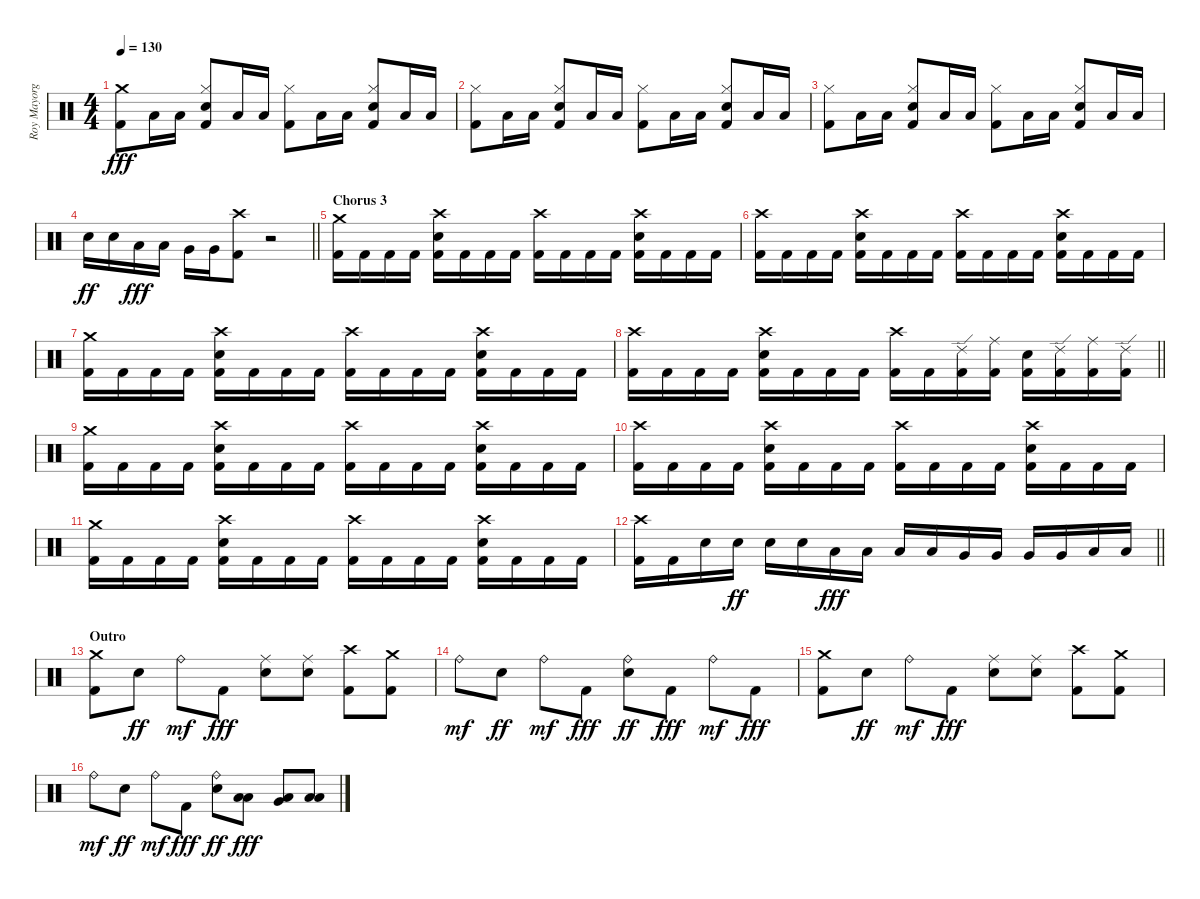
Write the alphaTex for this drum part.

\track ("Roy Mayorga" "Roy Mayorg") {instrument percussion}
\staff {score}
\articulation defaults
\ts (4 4)
\tempo 130
\clef neutral
\ks c
("Crash medium (hit)" "Kick (hit) 2").8{dy fff} "Low Floor Tom (hit)".16 "Low Floor Tom (hit)".16 ("Hi-Hat (closed)" "Electric Snare (hit)" "Kick (hit) 2").8 "Low Floor Tom (hit)".16 "Low Floor Tom (hit)".16 ("Hi-Hat (closed)" "Kick (hit) 2").8 "Low Floor Tom (hit)".16 "Low Floor Tom (hit)".16 ("Hi-Hat (closed)" "Electric Snare (hit)" "Kick (hit) 2").8 "Low Floor Tom (hit)".16 "Low Floor Tom (hit)".16 |
("Hi-Hat (closed)" "Kick (hit) 2").8 "Low Floor Tom (hit)".16 "Low Floor Tom (hit)".16 ("Hi-Hat (closed)" "Electric Snare (hit)" "Kick (hit) 2").8 "Low Floor Tom (hit)".16 "Low Floor Tom (hit)".16 ("Hi-Hat (closed)" "Kick (hit) 2").8 "Low Floor Tom (hit)".16 "Low Floor Tom (hit)".16 ("Hi-Hat (closed)" "Electric Snare (hit)" "Kick (hit) 2").8 "Low Floor Tom (hit)".16 "Low Floor Tom (hit)".16 |
("Hi-Hat (closed)" "Kick (hit) 2").8 "Low Floor Tom (hit)".16 "Low Floor Tom (hit)".16 ("Hi-Hat (closed)" "Electric Snare (hit)" "Kick (hit) 2").8 "Low Floor Tom (hit)".16 "Low Floor Tom (hit)".16 ("Hi-Hat (closed)" "Kick (hit) 2").8 "Low Floor Tom (hit)".16 "Low Floor Tom (hit)".16 ("Hi-Hat (closed)" "Electric Snare (hit)" "Kick (hit) 2").8 "Low Floor Tom (hit)".16 "Low Floor Tom (hit)".16 |
\barLineRight lightlight "Electric Snare (hit)".16{dy ff} "Electric Snare (hit)".16 "Low Tom (hit)".16{dy fff} "Low Tom (hit)".16 "Very Low Tom (hit)".16 "Very Low Tom (hit)".16
("Crash high (hit)" "Kick (hit) 2").8 r.2 |
\section ("" "Chorus 3")
("Crash medium (hit)" "Kick (hit) 2").16 "Kick (hit) 2".16 "Kick (hit) 2".16 "Kick (hit) 2".16 ("Crash high (hit)" "Electric Snare (hit)" "Kick (hit) 2").16 "Kick (hit) 2".16 "Kick (hit) 2".16 "Kick (hit) 2".16 ("Crash high (hit)" "Kick (hit) 2").16 "Kick (hit) 2".16 "Kick (hit) 2".16 "Kick (hit) 2".16 ("Crash high (hit)" "Electric Snare (hit)" "Kick (hit) 2").16 "Kick (hit) 2".16 "Kick (hit) 2".16 "Kick (hit) 2".16 |
("Crash high (hit)" "Kick (hit) 2").16 "Kick (hit) 2".16 "Kick (hit) 2".16 "Kick (hit) 2".16 ("Crash high (hit)" "Electric Snare (hit)" "Kick (hit) 2").16 "Kick (hit) 2".16 "Kick (hit) 2".16 "Kick (hit) 2".16 ("Crash high (hit)" "Kick (hit) 2").16 "Kick (hit) 2".16 "Kick (hit) 2".16 "Kick (hit) 2".16 ("Crash high (hit)" "Electric Snare (hit)" "Kick (hit) 2").16 "Kick (hit) 2".16 "Kick (hit) 2".16 "Kick (hit) 2".16 |
("Crash medium (hit)" "Kick (hit) 2").16 "Kick (hit) 2".16 "Kick (hit) 2".16 "Kick (hit) 2".16 ("Crash high (hit)" "Electric Snare (hit)" "Kick (hit) 2").16 "Kick (hit) 2".16 "Kick (hit) 2".16 "Kick (hit) 2".16 ("Crash high (hit)" "Kick (hit) 2").16 "Kick (hit) 2".16 "Kick (hit) 2".16 "Kick (hit) 2".16 ("Crash high (hit)" "Electric Snare (hit)" "Kick (hit) 2").16 "Kick (hit) 2".16 "Kick (hit) 2".16 "Kick (hit) 2".16 |
\barLineRight lightlight
("Crash high (hit)" "Kick (hit) 2").16 "Kick (hit) 2".16 "Kick (hit) 2".16 "Kick (hit) 2".16 ("Crash high (hit)" "Electric Snare (hit)" "Kick (hit) 2").16 "Kick (hit) 2".16 "Kick (hit) 2".16 "Kick (hit) 2".16 ("Crash high (hit)" "Kick (hit) 2").16 "Kick (hit) 2".16 ("Ride (edge) 2" "Kick (hit) 2").16 ("Ride (middle)" "Kick (hit) 2").16 ("Electric Snare (hit)" "Kick (hit) 2").16 ("Ride (edge) 2" "Kick (hit) 2").16 ("Ride (middle)" "Kick (hit) 2").16 ("Ride (edge) 2" "Kick (hit) 2").16 |
("Crash medium (hit)" "Kick (hit) 2").16 "Kick (hit) 2".16 "Kick (hit) 2".16 "Kick (hit) 2".16 ("Crash high (hit)" "Electric Snare (hit)" "Kick (hit) 2").16 "Kick (hit) 2".16 "Kick (hit) 2".16 "Kick (hit) 2".16 ("Crash high (hit)" "Kick (hit) 2").16 "Kick (hit) 2".16 "Kick (hit) 2".16 "Kick (hit) 2".16 ("Crash high (hit)" "Electric Snare (hit)" "Kick (hit) 2").16 "Kick (hit) 2".16 "Kick (hit) 2".16 "Kick (hit) 2".16 |
("Crash high (hit)" "Kick (hit) 2").16 "Kick (hit) 2".16 "Kick (hit) 2".16 "Kick (hit) 2".16 ("Crash high (hit)" "Electric Snare (hit)" "Kick (hit) 2").16 "Kick (hit) 2".16 "Kick (hit) 2".16 "Kick (hit) 2".16 ("Crash high (hit)" "Kick (hit) 2").16 "Kick (hit) 2".16 "Kick (hit) 2".16 "Kick (hit) 2".16 ("Crash high (hit)" "Electric Snare (hit)" "Kick (hit) 2").16 "Kick (hit) 2".16 "Kick (hit) 2".16 "Kick (hit) 2".16 |
("Crash medium (hit)" "Kick (hit) 2").16 "Kick (hit) 2".16 "Kick (hit) 2".16 "Kick (hit) 2".16 ("Crash high (hit)" "Electric Snare (hit)" "Kick (hit) 2").16 "Kick (hit) 2".16 "Kick (hit) 2".16 "Kick (hit) 2".16 ("Crash high (hit)" "Kick (hit) 2").16 "Kick (hit) 2".16 "Kick (hit) 2".16 "Kick (hit) 2".16 ("Crash high (hit)" "Electric Snare (hit)" "Kick (hit) 2").16 "Kick (hit) 2".16 "Kick (hit) 2".16 "Kick (hit) 2".16 |
\barLineRight lightlight
("Crash high (hit)" "Kick (hit) 2").16 "Kick (hit) 2".16 "Electric Snare (hit)".16 "Electric Snare (hit)".16{dy ff} "Electric Snare (hit)".16 "Electric Snare (hit)".16 "Low Tom (hit)".16{dy fff} "Low Tom (hit)".16 "Low Tom (hit)".16 "Low Tom (hit)".16 "Very Low Tom (hit)".16 "Very Low Tom (hit)".16 "Very Low Tom (hit)".16 "Very Low Tom (hit)".16 "Low Floor Tom (hit)".16 "Low Floor Tom (hit)".16 |
\section ("" "Outro")
("Crash medium (hit)" "Kick (hit) 2").8 "Electric Snare (hit)".8{dy ff} "Ride (bell)".8{dy mf} "Kick (hit) 2".8{dy fff} ("Ride (middle)" "Electric Snare (hit)").8 ("Ride (middle)" "Electric Snare (hit)").8 ("Crash high (hit)" "Kick (hit) 2").8 ("Crash medium (hit)" "Kick (hit) 2").8 |
"Ride (bell)".8{dy mf} "Electric Snare (hit)".8{dy ff} "Ride (bell)".8{dy mf} "Kick (hit) 2".8{dy fff} ("Ride (bell)" "Electric Snare (hit)").8{dy ff} "Kick (hit) 2".8{dy fff} "Ride (bell)".8{dy mf} "Kick (hit) 2".8{dy fff} |
("Crash medium (hit)" "Kick (hit) 2").8 "Electric Snare (hit)".8{dy ff} "Ride (bell)".8{dy mf} "Kick (hit) 2".8{dy fff} ("Ride (middle)" "Electric Snare (hit)").8 ("Ride (middle)" "Electric Snare (hit)").8 ("Crash high (hit)" "Kick (hit) 2").8 ("Crash medium (hit)" "Kick (hit) 2").8 |
"Ride (bell)".8{dy mf} "Electric Snare (hit)".8{dy ff} "Ride (bell)".8{dy mf} "Kick (hit) 2".8{dy fff} ("Ride (bell)" "Electric Snare (hit)").8{dy ff} ("Low Tom (hit)" "Low Floor Tom (hit)").8{dy fff} ("Very Low Tom (hit)" "Low Floor Tom (hit)").8 ("Low Floor Tom (hit)" "Low Floor Tom (hit)").8
